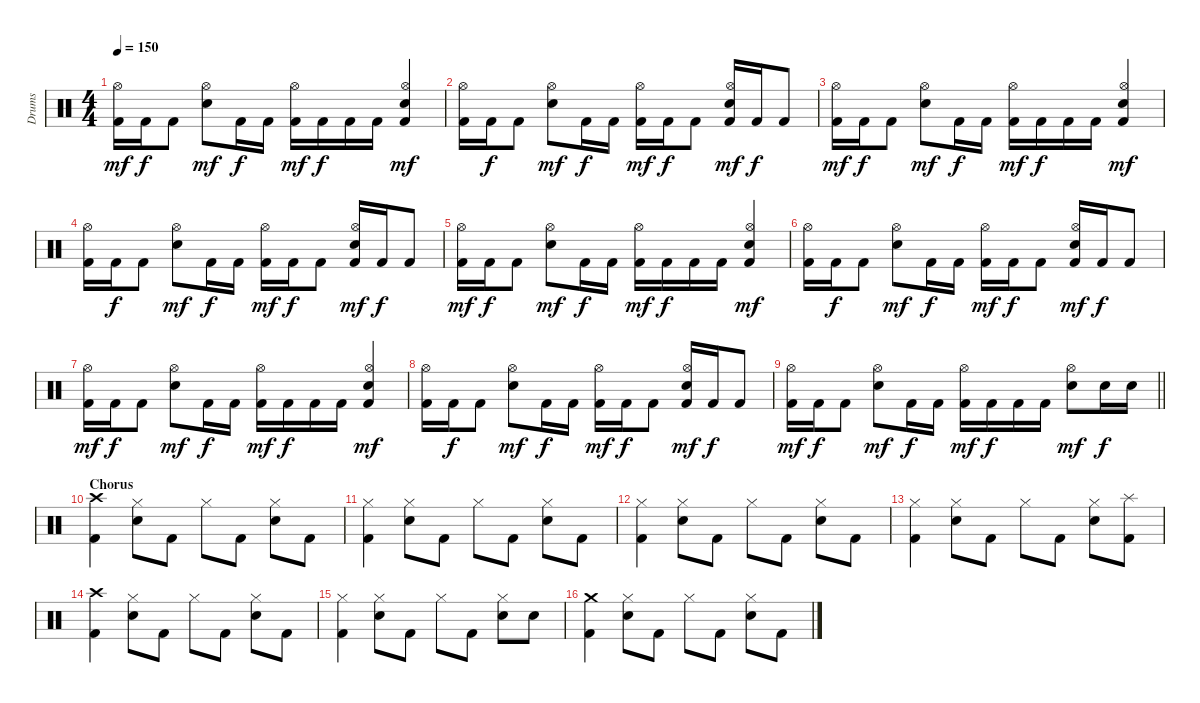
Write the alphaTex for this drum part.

\track ("Drums" "Drums") {instrument percussion}
\staff {score}
\articulation defaults
\ts (4 4)
\tempo 150
\clef neutral
\ks c
("Kick (hit) 2" "Hi-Hat (open)").16{dy mf} "Kick (hit) 2".16{dy f} "Kick (hit) 2".8 ("Hi-Hat (open)" "Electric Snare (hit)").8{dy mf} "Kick (hit) 2".16{dy f} "Kick (hit) 2".16 ("Kick (hit) 2" "Hi-Hat (open)").16{dy mf} "Kick (hit) 2".16{dy f} "Kick (hit) 2".16 "Kick (hit) 2".16 ("Kick (hit) 2" "Hi-Hat (open)" "Electric Snare (hit)").4{dy mf} |
("Kick (hit) 2" "Hi-Hat (open)").16 "Kick (hit) 2".16{dy f} "Kick (hit) 2".8 ("Hi-Hat (open)" "Electric Snare (hit)").8{dy mf} "Kick (hit) 2".16{dy f} "Kick (hit) 2".16 ("Kick (hit) 2" "Hi-Hat (open)").16{dy mf} "Kick (hit) 2".16{dy f} "Kick (hit) 2".8 ("Kick (hit) 2" "Hi-Hat (open)" "Electric Snare (hit)").16{dy mf} "Kick (hit) 2".16{dy f} "Kick (hit) 2".8 |
("Kick (hit) 2" "Hi-Hat (open)").16{dy mf} "Kick (hit) 2".16{dy f} "Kick (hit) 2".8 ("Hi-Hat (open)" "Electric Snare (hit)").8{dy mf} "Kick (hit) 2".16{dy f} "Kick (hit) 2".16 ("Kick (hit) 2" "Hi-Hat (open)").16{dy mf} "Kick (hit) 2".16{dy f} "Kick (hit) 2".16 "Kick (hit) 2".16 ("Kick (hit) 2" "Hi-Hat (open)" "Electric Snare (hit)").4{dy mf} |
("Kick (hit) 2" "Hi-Hat (open)").16 "Kick (hit) 2".16{dy f} "Kick (hit) 2".8 ("Hi-Hat (open)" "Electric Snare (hit)").8{dy mf} "Kick (hit) 2".16{dy f} "Kick (hit) 2".16 ("Kick (hit) 2" "Hi-Hat (open)").16{dy mf} "Kick (hit) 2".16{dy f} "Kick (hit) 2".8 ("Kick (hit) 2" "Hi-Hat (open)" "Electric Snare (hit)").16{dy mf} "Kick (hit) 2".16{dy f} "Kick (hit) 2".8 |
("Kick (hit) 2" "Hi-Hat (open)").16{dy mf} "Kick (hit) 2".16{dy f} "Kick (hit) 2".8 ("Hi-Hat (open)" "Electric Snare (hit)").8{dy mf} "Kick (hit) 2".16{dy f} "Kick (hit) 2".16 ("Kick (hit) 2" "Hi-Hat (open)").16{dy mf} "Kick (hit) 2".16{dy f} "Kick (hit) 2".16 "Kick (hit) 2".16 ("Kick (hit) 2" "Hi-Hat (open)" "Electric Snare (hit)").4{dy mf} |
("Kick (hit) 2" "Hi-Hat (open)").16 "Kick (hit) 2".16{dy f} "Kick (hit) 2".8 ("Hi-Hat (open)" "Electric Snare (hit)").8{dy mf} "Kick (hit) 2".16{dy f} "Kick (hit) 2".16 ("Kick (hit) 2" "Hi-Hat (open)").16{dy mf} "Kick (hit) 2".16{dy f} "Kick (hit) 2".8 ("Kick (hit) 2" "Hi-Hat (open)" "Electric Snare (hit)").16{dy mf} "Kick (hit) 2".16{dy f} "Kick (hit) 2".8 |
("Kick (hit) 2" "Hi-Hat (open)").16{dy mf} "Kick (hit) 2".16{dy f} "Kick (hit) 2".8 ("Hi-Hat (open)" "Electric Snare (hit)").8{dy mf} "Kick (hit) 2".16{dy f} "Kick (hit) 2".16 ("Kick (hit) 2" "Hi-Hat (open)").16{dy mf} "Kick (hit) 2".16{dy f} "Kick (hit) 2".16 "Kick (hit) 2".16 ("Kick (hit) 2" "Hi-Hat (open)" "Electric Snare (hit)").4{dy mf} |
("Kick (hit) 2" "Hi-Hat (open)").16 "Kick (hit) 2".16{dy f} "Kick (hit) 2".8 ("Hi-Hat (open)" "Electric Snare (hit)").8{dy mf} "Kick (hit) 2".16{dy f} "Kick (hit) 2".16 ("Kick (hit) 2" "Hi-Hat (open)").16{dy mf} "Kick (hit) 2".16{dy f} "Kick (hit) 2".8 ("Kick (hit) 2" "Hi-Hat (open)" "Electric Snare (hit)").16{dy mf} "Kick (hit) 2".16{dy f} "Kick (hit) 2".8 |
\barLineRight lightlight
("Kick (hit) 2" "Hi-Hat (open)").16{dy mf} "Kick (hit) 2".16{dy f} "Kick (hit) 2".8 ("Hi-Hat (open)" "Electric Snare (hit)").8{dy mf} "Kick (hit) 2".16{dy f} "Kick (hit) 2".16 ("Kick (hit) 2" "Hi-Hat (open)").16{dy mf} "Kick (hit) 2".16{dy f} "Kick (hit) 2".16 "Kick (hit) 2".16 ("Hi-Hat (open)" "Electric Snare (hit)").8{dy mf} "Electric Snare (hit)".16{dy f} "Electric Snare (hit)".16 |
\section ("" "Chorus")
("Kick (hit) 2" "Crash high (hit)").4 ("Hi-Hat (closed)" "Electric Snare (hit)").8 "Kick (hit) 2".8 "Hi-Hat (closed)".8 "Kick (hit) 2".8 ("Hi-Hat (closed)" "Electric Snare (hit)").8 "Kick (hit) 2".8 |
("Kick (hit) 2" "Hi-Hat (closed)").4 ("Hi-Hat (closed)" "Electric Snare (hit)").8 "Kick (hit) 2".8 "Hi-Hat (closed)".8 "Kick (hit) 2".8 ("Hi-Hat (closed)" "Electric Snare (hit)").8 "Kick (hit) 2".8 |
("Kick (hit) 2" "Hi-Hat (closed)").4 ("Hi-Hat (closed)" "Electric Snare (hit)").8 "Kick (hit) 2".8 "Hi-Hat (closed)".8 "Kick (hit) 2".8 ("Hi-Hat (closed)" "Electric Snare (hit)").8 "Kick (hit) 2".8 |
("Kick (hit) 2" "Hi-Hat (closed)").4 ("Hi-Hat (closed)" "Electric Snare (hit)").8 "Kick (hit) 2".8 "Hi-Hat (closed)".8 "Kick (hit) 2".8 ("Hi-Hat (closed)" "Electric Snare (hit)").8 ("Kick (hit) 2" "Splash (hit)").8 |
("Kick (hit) 2" "Crash high (hit)").4 ("Hi-Hat (closed)" "Electric Snare (hit)").8 "Kick (hit) 2".8 "Hi-Hat (closed)".8 "Kick (hit) 2".8 ("Hi-Hat (closed)" "Electric Snare (hit)").8 "Kick (hit) 2".8 |
("Kick (hit) 2" "Hi-Hat (closed)").4 ("Hi-Hat (closed)" "Electric Snare (hit)").8 "Kick (hit) 2".8 "Hi-Hat (closed)".8 "Kick (hit) 2".8 ("Hi-Hat (closed)" "Electric Snare (hit)").8 "Electric Snare (hit)".8 |
("Kick (hit) 2" "Crash medium (hit)").4 ("Hi-Hat (closed)" "Electric Snare (hit)").8 "Kick (hit) 2".8 "Hi-Hat (closed)".8 "Kick (hit) 2".8 ("Hi-Hat (closed)" "Electric Snare (hit)").8 "Kick (hit) 2".8
